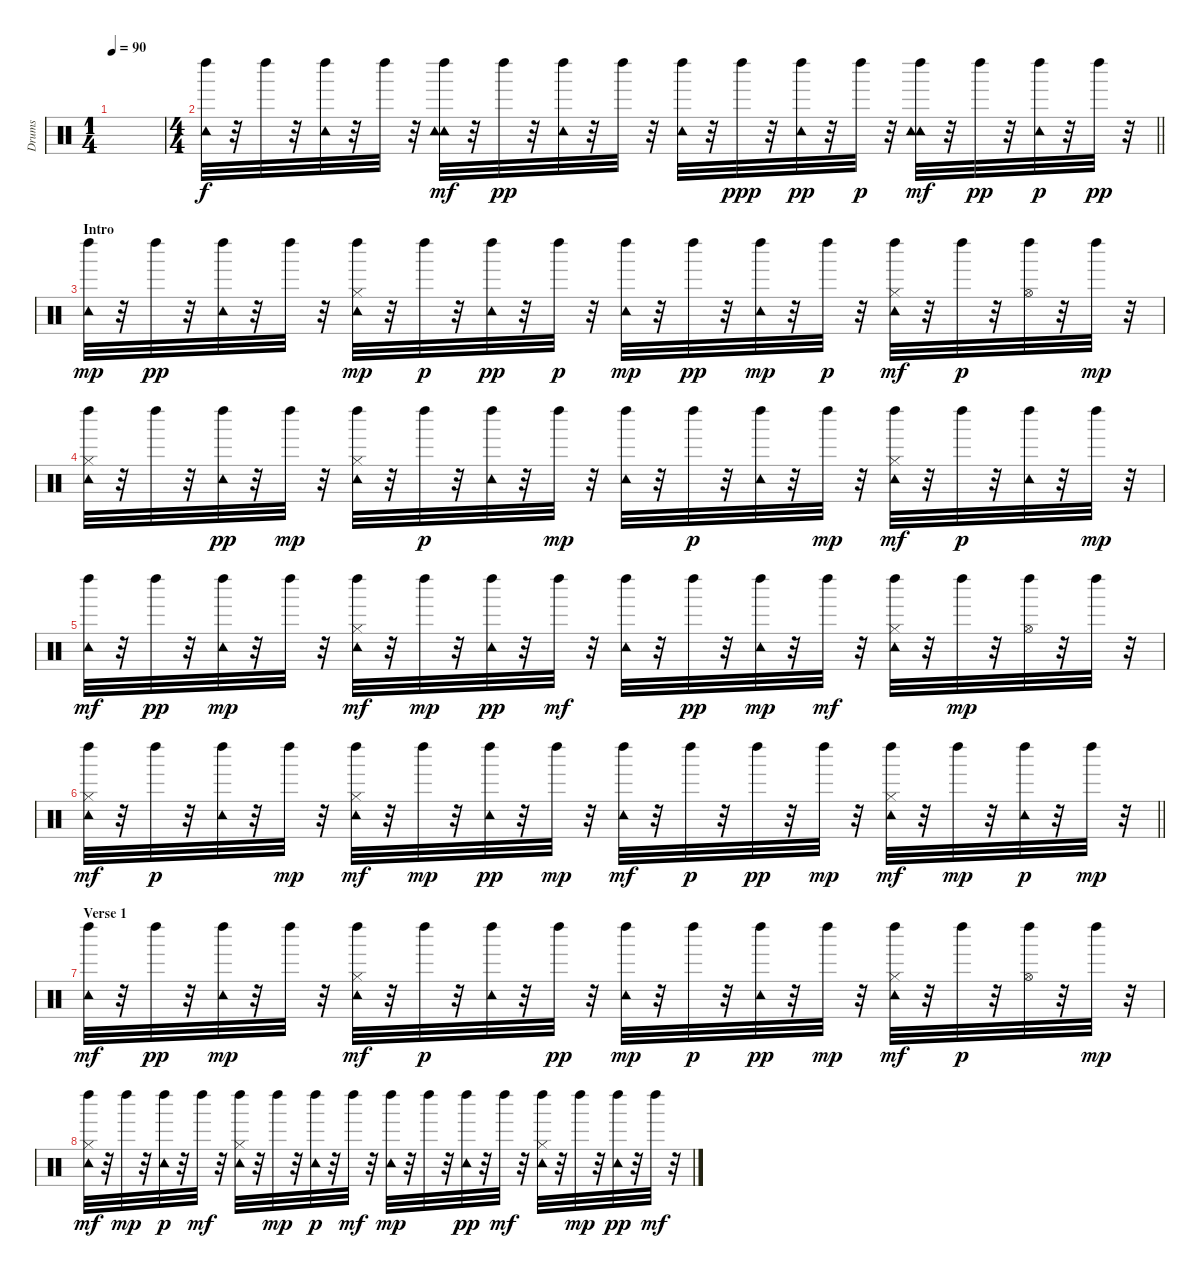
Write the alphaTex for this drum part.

\track ("Drums" "Drums") {instrument percussion}
\staff {score}
\articulation defaults
\ts (1 4)
\tempo 90
\clef neutral
\ks c
|
\ts (4 4)
\barLineRight lightlight
("Tambourine (hit)" "Left Maraca (hit)").32 r.32 "Left Maraca (hit)".32 r.32 ("Tambourine (hit)" "Left Maraca (hit)").32 r.32 "Left Maraca (hit)".32 r.32 ("Tambourine (hit)" "Tambourine (hit)" "Left Maraca (hit)").32{dy mf} r.32 "Left Maraca (hit)".32{dy pp} r.32 ("Tambourine (hit)" "Left Maraca (hit)").32 r.32 "Left Maraca (hit)".32 r.32 ("Tambourine (hit)" "Left Maraca (hit)").32 r.32 "Left Maraca (hit)".32{dy ppp} r.32 ("Tambourine (hit)" "Left Maraca (hit)").32{dy pp} r.32 "Left Maraca (hit)".32{dy p} r.32 ("Tambourine (hit)" "Tambourine (hit)" "Left Maraca (hit)").32{dy mf} r.32 "Left Maraca (hit)".32{dy pp} r.32 ("Tambourine (hit)" "Left Maraca (hit)").32{dy p} r.32 "Left Maraca (hit)".32{dy pp} r.32 |
\section ("" "Intro")
("Tambourine (hit)" "Left Maraca (hit)").32{dy mp} r.32 "Left Maraca (hit)".32{dy pp} r.32 ("Tambourine (hit)" "Left Maraca (hit)").32 r.32 "Left Maraca (hit)".32 r.32 ("Hi-Hat (closed)" "Tambourine (hit)" "Left Maraca (hit)").32{dy mp} r.32 "Left Maraca (hit)".32{dy p} r.32 ("Tambourine (hit)" "Left Maraca (hit)").32{dy pp} r.32 "Left Maraca (hit)".32{dy p} r.32 ("Tambourine (hit)" "Left Maraca (hit)").32{dy mp} r.32 "Left Maraca (hit)".32{dy pp} r.32 ("Tambourine (hit)" "Left Maraca (hit)").32{dy mp} r.32 "Left Maraca (hit)".32{dy p} r.32 ("Hi-Hat (closed)" "Tambourine (hit)" "Left Maraca (hit)").32{dy mf} r.32 "Left Maraca (hit)".32{dy p} r.32 ("Hi-Hat (open)" "Left Maraca (hit)").32 r.32 "Left Maraca (hit)".32{dy mp} r.32 |
("Hi-Hat (closed)" "Tambourine (hit)" "Left Maraca (hit)").32 r.32 "Left Maraca (hit)".32 r.32 ("Tambourine (hit)" "Left Maraca (hit)").32{dy pp} r.32 "Left Maraca (hit)".32{dy mp} r.32 ("Hi-Hat (closed)" "Tambourine (hit)" "Left Maraca (hit)").32 r.32 "Left Maraca (hit)".32{dy p} r.32 ("Tambourine (hit)" "Left Maraca (hit)").32 r.32 "Left Maraca (hit)".32{dy mp} r.32 ("Tambourine (hit)" "Left Maraca (hit)").32 r.32 "Left Maraca (hit)".32{dy p} r.32 ("Tambourine (hit)" "Left Maraca (hit)").32 r.32 "Left Maraca (hit)".32{dy mp} r.32 ("Hi-Hat (closed)" "Tambourine (hit)" "Left Maraca (hit)").32{dy mf} r.32 "Left Maraca (hit)".32{dy p} r.32 ("Tambourine (hit)" "Left Maraca (hit)").32 r.32 "Left Maraca (hit)".32{dy mp} r.32 |
("Tambourine (hit)" "Left Maraca (hit)").32{dy mf} r.32 "Left Maraca (hit)".32{dy pp} r.32 ("Tambourine (hit)" "Left Maraca (hit)").32{dy mp} r.32 "Left Maraca (hit)".32 r.32 ("Hi-Hat (closed)" "Tambourine (hit)" "Left Maraca (hit)").32{dy mf} r.32 "Left Maraca (hit)".32{dy mp} r.32 ("Tambourine (hit)" "Left Maraca (hit)").32{dy pp} r.32 "Left Maraca (hit)".32{dy mf} r.32 ("Tambourine (hit)" "Left Maraca (hit)").32 r.32 "Left Maraca (hit)".32{dy pp} r.32 ("Tambourine (hit)" "Left Maraca (hit)").32{dy mp} r.32 "Left Maraca (hit)".32{dy mf} r.32 ("Hi-Hat (closed)" "Tambourine (hit)" "Left Maraca (hit)").32 r.32 "Left Maraca (hit)".32{dy mp} r.32 ("Hi-Hat (open)" "Left Maraca (hit)").32 r.32 "Left Maraca (hit)".32 r.32 |
\barLineRight lightlight
("Hi-Hat (closed)" "Tambourine (hit)" "Left Maraca (hit)").32{dy mf} r.32 "Left Maraca (hit)".32{dy p} r.32 ("Tambourine (hit)" "Left Maraca (hit)").32 r.32 "Left Maraca (hit)".32{dy mp} r.32 ("Hi-Hat (closed)" "Tambourine (hit)" "Left Maraca (hit)").32{dy mf} r.32 "Left Maraca (hit)".32{dy mp} r.32 ("Tambourine (hit)" "Left Maraca (hit)").32{dy pp} r.32 "Left Maraca (hit)".32{dy mp} r.32 ("Tambourine (hit)" "Left Maraca (hit)").32{dy mf} r.32 "Left Maraca (hit)".32{dy p} r.32 "Left Maraca (hit)".32{dy pp} r.32 "Left Maraca (hit)".32{dy mp} r.32 ("Hi-Hat (closed)" "Tambourine (hit)" "Left Maraca (hit)").32{dy mf} r.32 "Left Maraca (hit)".32{dy mp} r.32 ("Tambourine (hit)" "Left Maraca (hit)").32{dy p} r.32 "Left Maraca (hit)".32{dy mp} r.32 |
\section ("" "Verse 1")
("Tambourine (hit)" "Left Maraca (hit)").32{dy mf} r.32 "Left Maraca (hit)".32{dy pp} r.32 ("Tambourine (hit)" "Left Maraca (hit)").32{dy mp} r.32 "Left Maraca (hit)".32 r.32 ("Hi-Hat (closed)" "Tambourine (hit)" "Left Maraca (hit)").32{dy mf} r.32 "Left Maraca (hit)".32{dy p} r.32 ("Tambourine (hit)" "Left Maraca (hit)").32 r.32 "Left Maraca (hit)".32{dy pp} r.32 ("Tambourine (hit)" "Left Maraca (hit)").32{dy mp} r.32 "Left Maraca (hit)".32{dy p} r.32 ("Tambourine (hit)" "Left Maraca (hit)").32{dy pp} r.32 "Left Maraca (hit)".32{dy mp} r.32 ("Hi-Hat (closed)" "Tambourine (hit)" "Left Maraca (hit)").32{dy mf} r.32 "Left Maraca (hit)".32{dy p} r.32 ("Hi-Hat (open)" "Left Maraca (hit)").32 r.32 "Left Maraca (hit)".32{dy mp} r.32 |
("Hi-Hat (closed)" "Tambourine (hit)" "Left Maraca (hit)").32{dy mf} r.32 "Left Maraca (hit)".32{dy mp} r.32 ("Tambourine (hit)" "Left Maraca (hit)").32{dy p} r.32 "Left Maraca (hit)".32{dy mf} r.32 ("Hi-Hat (closed)" "Tambourine (hit)" "Left Maraca (hit)").32 r.32 "Left Maraca (hit)".32{dy mp} r.32 ("Tambourine (hit)" "Left Maraca (hit)").32{dy p} r.32 "Left Maraca (hit)".32{dy mf} r.32 ("Tambourine (hit)" "Left Maraca (hit)").32{dy mp} r.32 "Left Maraca (hit)".32 r.32 ("Tambourine (hit)" "Left Maraca (hit)").32{dy pp} r.32 "Left Maraca (hit)".32{dy mf} r.32 ("Hi-Hat (closed)" "Tambourine (hit)" "Left Maraca (hit)").32 r.32 "Left Maraca (hit)".32{dy mp} r.32 ("Tambourine (hit)" "Left Maraca (hit)").32{dy pp} r.32 "Left Maraca (hit)".32{dy mf} r.32
